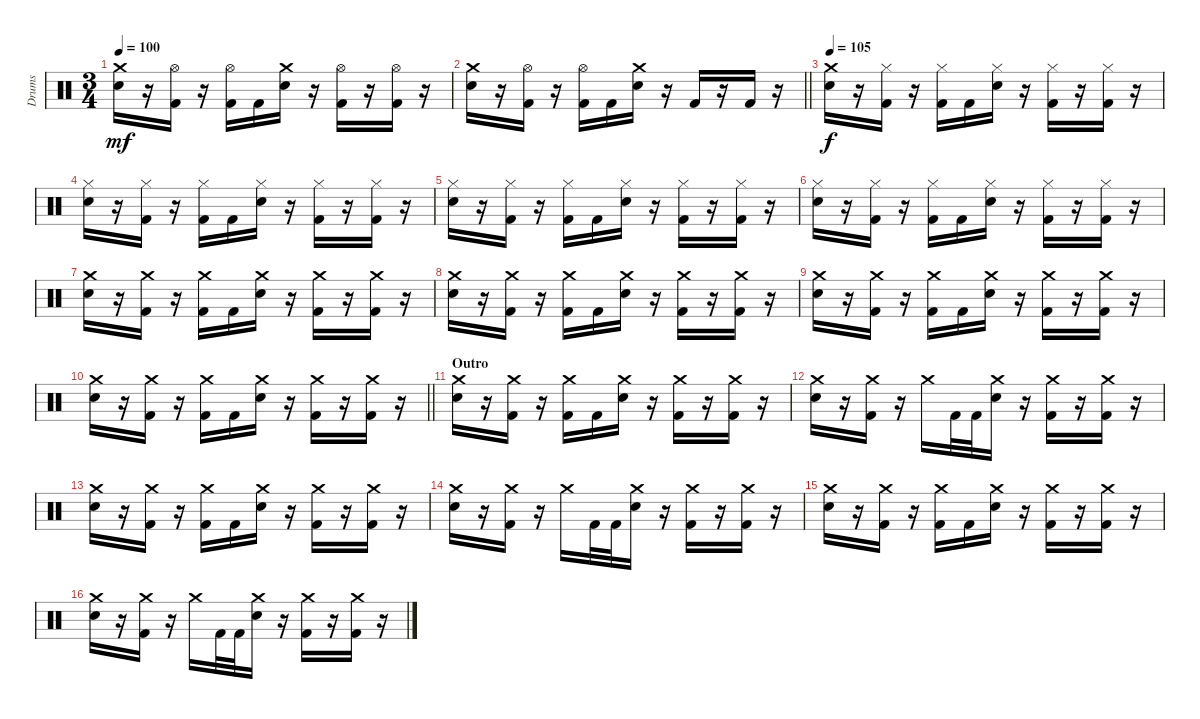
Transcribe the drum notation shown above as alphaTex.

\track ("Drums" "Drums") {instrument percussion}
\staff {score}
\articulation defaults
\ts (3 4)
\tempo 100
\clef neutral
\ks c
("Crash medium (hit)" "Electric Snare (hit)").16{dy mf} r.16 ("Hi-Hat (open)" "Kick (hit) 2").16 r.16 ("Hi-Hat (open)" "Kick (hit) 2").16 "Kick (hit) 2".16 ("Crash medium (hit)" "Electric Snare (hit)").16 r.16 ("Hi-Hat (open)" "Kick (hit) 2").16 r.16 ("Hi-Hat (open)" "Kick (hit) 2").16 r.16 |
\barLineRight lightlight
("Crash medium (hit)" "Electric Snare (hit)").16 r.16 ("Hi-Hat (open)" "Kick (hit) 2").16 r.16 ("Hi-Hat (open)" "Kick (hit) 2").16 "Kick (hit) 2".16 ("Crash medium (hit)" "Electric Snare (hit)").16 r.16 "Kick (hit) 2".16 r.16 "Kick (hit) 2".16 r.16 |
\section ("" "")
\tempo 105
("Crash medium (hit)" "Electric Snare (hit)").16{dy f} r.16 ("Hi-Hat (closed)" "Kick (hit) 2").16 r.16 ("Hi-Hat (closed)" "Kick (hit) 2").16 "Kick (hit) 2".16 ("Hi-Hat (closed)" "Electric Snare (hit)").16 r.16 ("Hi-Hat (closed)" "Kick (hit) 2").16 r.16 ("Hi-Hat (closed)" "Kick (hit) 2").16 r.16 |
("Hi-Hat (closed)" "Electric Snare (hit)").16 r.16 ("Hi-Hat (closed)" "Kick (hit) 2").16 r.16 ("Hi-Hat (closed)" "Kick (hit) 2").16 "Kick (hit) 2".16 ("Hi-Hat (closed)" "Electric Snare (hit)").16 r.16 ("Hi-Hat (closed)" "Kick (hit) 2").16 r.16 ("Hi-Hat (closed)" "Kick (hit) 2").16 r.16 |
("Hi-Hat (closed)" "Electric Snare (hit)").16 r.16 ("Hi-Hat (closed)" "Kick (hit) 2").16 r.16 ("Hi-Hat (closed)" "Kick (hit) 2").16 "Kick (hit) 2".16 ("Hi-Hat (closed)" "Electric Snare (hit)").16 r.16 ("Hi-Hat (closed)" "Kick (hit) 2").16 r.16 ("Hi-Hat (closed)" "Kick (hit) 2").16 r.16 |
("Hi-Hat (closed)" "Electric Snare (hit)").16 r.16 ("Hi-Hat (closed)" "Kick (hit) 2").16 r.16 ("Hi-Hat (closed)" "Kick (hit) 2").16 "Kick (hit) 2".16 ("Hi-Hat (closed)" "Electric Snare (hit)").16 r.16 ("Hi-Hat (closed)" "Kick (hit) 2").16 r.16 ("Hi-Hat (closed)" "Kick (hit) 2").16 r.16 |
("Crash medium (hit)" "Electric Snare (hit)").16 r.16 ("Crash medium (hit)" "Kick (hit) 2").16 r.16 ("Crash medium (hit)" "Kick (hit) 2").16 "Kick (hit) 2".16 ("Crash medium (hit)" "Electric Snare (hit)").16 r.16 ("Crash medium (hit)" "Kick (hit) 2").16 r.16 ("Crash medium (hit)" "Kick (hit) 2").16 r.16 |
("Crash medium (hit)" "Electric Snare (hit)").16 r.16 ("Crash medium (hit)" "Kick (hit) 2").16 r.16 ("Crash medium (hit)" "Kick (hit) 2").16 "Kick (hit) 2".16 ("Crash medium (hit)" "Electric Snare (hit)").16 r.16 ("Crash medium (hit)" "Kick (hit) 2").16 r.16 ("Crash medium (hit)" "Kick (hit) 2").16 r.16 |
("Crash medium (hit)" "Electric Snare (hit)").16 r.16 ("Crash medium (hit)" "Kick (hit) 2").16 r.16 ("Crash medium (hit)" "Kick (hit) 2").16 "Kick (hit) 2".16 ("Crash medium (hit)" "Electric Snare (hit)").16 r.16 ("Crash medium (hit)" "Kick (hit) 2").16 r.16 ("Crash medium (hit)" "Kick (hit) 2").16 r.16 |
\barLineRight lightlight
("Crash medium (hit)" "Electric Snare (hit)").16 r.16 ("Crash medium (hit)" "Kick (hit) 2").16 r.16 ("Crash medium (hit)" "Kick (hit) 2").16 "Kick (hit) 2".16 ("Crash medium (hit)" "Electric Snare (hit)").16 r.16 ("Crash medium (hit)" "Kick (hit) 2").16 r.16 ("Crash medium (hit)" "Kick (hit) 2").16 r.16 |
\section ("" "Outro")
("Crash medium (hit)" "Electric Snare (hit)").16 r.16 ("Crash medium (hit)" "Kick (hit) 2").16 r.16 ("Crash medium (hit)" "Kick (hit) 2").16 "Kick (hit) 2".16 ("Crash medium (hit)" "Electric Snare (hit)").16 r.16 ("Crash medium (hit)" "Kick (hit) 2").16 r.16 ("Crash medium (hit)" "Kick (hit) 2").16 r.16 |
("Crash medium (hit)" "Electric Snare (hit)").16 r.16 ("Crash medium (hit)" "Kick (hit) 2").16 r.16 "Crash medium (hit)".16 "Kick (hit) 2".32 "Kick (hit) 2".32 ("Crash medium (hit)" "Electric Snare (hit)").16 r.16 ("Crash medium (hit)" "Kick (hit) 2").16 r.16 ("Crash medium (hit)" "Kick (hit) 2").16 r.16 |
("Crash medium (hit)" "Electric Snare (hit)").16 r.16 ("Crash medium (hit)" "Kick (hit) 2").16 r.16 ("Crash medium (hit)" "Kick (hit) 2").16 "Kick (hit) 2".16 ("Crash medium (hit)" "Electric Snare (hit)").16 r.16 ("Crash medium (hit)" "Kick (hit) 2").16 r.16 ("Crash medium (hit)" "Kick (hit) 2").16 r.16 |
("Crash medium (hit)" "Electric Snare (hit)").16 r.16 ("Crash medium (hit)" "Kick (hit) 2").16 r.16 "Crash medium (hit)".16 "Kick (hit) 2".32 "Kick (hit) 2".32 ("Crash medium (hit)" "Electric Snare (hit)").16 r.16 ("Crash medium (hit)" "Kick (hit) 2").16 r.16 ("Crash medium (hit)" "Kick (hit) 2").16 r.16 |
("Crash medium (hit)" "Electric Snare (hit)").16 r.16 ("Crash medium (hit)" "Kick (hit) 2").16 r.16 ("Crash medium (hit)" "Kick (hit) 2").16 "Kick (hit) 2".16 ("Crash medium (hit)" "Electric Snare (hit)").16 r.16 ("Crash medium (hit)" "Kick (hit) 2").16 r.16 ("Crash medium (hit)" "Kick (hit) 2").16 r.16 |
("Crash medium (hit)" "Electric Snare (hit)").16 r.16 ("Crash medium (hit)" "Kick (hit) 2").16 r.16 "Crash medium (hit)".16 "Kick (hit) 2".32 "Kick (hit) 2".32 ("Crash medium (hit)" "Electric Snare (hit)").16 r.16 ("Crash medium (hit)" "Kick (hit) 2").16 r.16 ("Crash medium (hit)" "Kick (hit) 2").16 r.16
